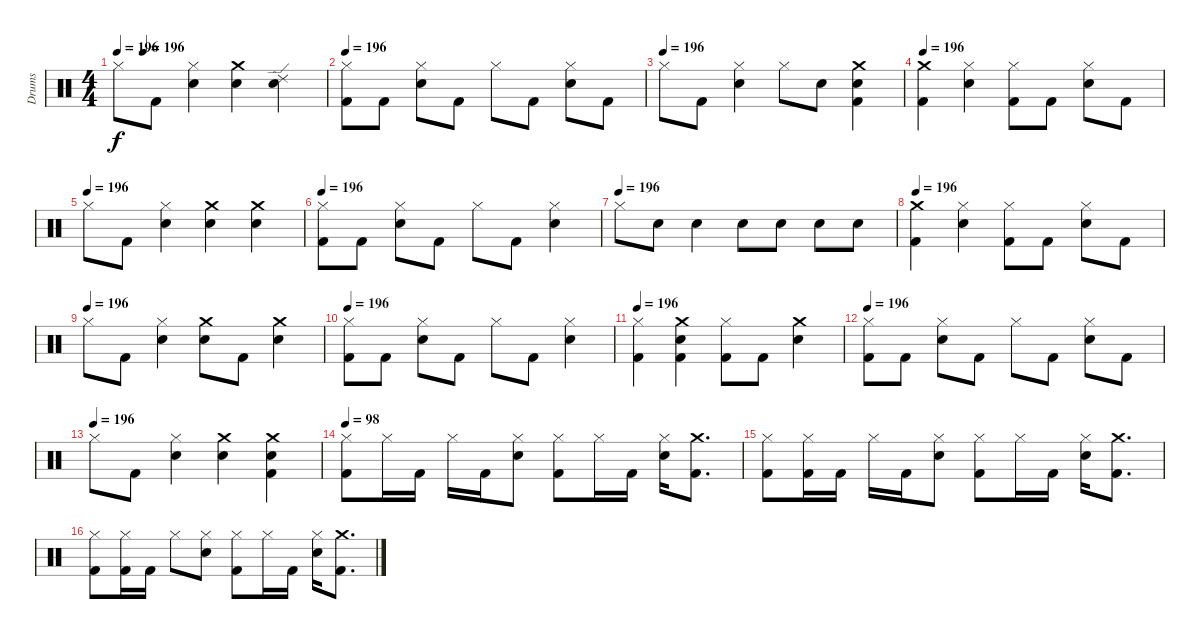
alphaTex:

\track ("Drums" "Drums") {instrument percussion}
\staff {score}
\articulation defaults
\ts (4 4)
\tempo 196
\tempo (196 0.125)
\clef neutral
\ks c "Hi-Hat (closed)".8{dy f} "Kick (hit) 2".8
("Snare (hit) 2" "Hi-Hat (closed)").4 ("Crash medium (hit)" "Snare (hit) 2").4 ("Ride (edge) 2" "Snare (hit) 2").4 |
\tempo 196
("Kick (hit) 2" "Hi-Hat (closed)").8 "Kick (hit) 2".8 ("Snare (hit) 2" "Hi-Hat (closed)").8 "Kick (hit) 2".8 "Hi-Hat (closed)".8 "Kick (hit) 2".8 ("Snare (hit) 2" "Hi-Hat (closed)").8 "Kick (hit) 2".8 |
\tempo (196)
"Hi-Hat (closed)".8 "Kick (hit) 2".8 ("Snare (hit) 2" "Hi-Hat (closed)").4 "Hi-Hat (closed)".8 "Snare (hit) 2".8 ("Kick (hit) 2" "Crash medium (hit)" "Snare (hit) 2").4 |
\tempo 196
("Kick (hit) 2" "Crash medium (hit)").4 ("Hi-Hat (closed)" "Snare (hit) 2").4 ("Kick (hit) 2" "Hi-Hat (closed)").8 "Kick (hit) 2".8 ("Snare (hit) 2" "Hi-Hat (closed)").8 "Kick (hit) 2".8 |
\tempo (196)
"Hi-Hat (closed)".8 "Kick (hit) 2".8 ("Snare (hit) 2" "Hi-Hat (closed)").4 ("Crash medium (hit)" "Snare (hit) 2").4 ("Crash medium (hit)" "Snare (hit) 2").4 |
\tempo 196
("Kick (hit) 2" "Hi-Hat (closed)").8 "Kick (hit) 2".8 ("Snare (hit) 2" "Hi-Hat (closed)").8 "Kick (hit) 2".8 "Hi-Hat (closed)".8 "Kick (hit) 2".8 ("Snare (hit) 2" "Hi-Hat (closed)").4 |
\tempo (196)
"Hi-Hat (closed)".8 "Snare (hit) 2".8 "Snare (hit) 2".4 "Snare (hit) 2".8 "Snare (hit) 2".8 "Snare (hit) 2".8 "Snare (hit) 2".8 |
\tempo 196
("Kick (hit) 2" "Crash medium (hit)").4 ("Snare (hit) 2" "Hi-Hat (closed)").4 ("Kick (hit) 2" "Hi-Hat (closed)").8 "Kick (hit) 2".8 ("Snare (hit) 2" "Hi-Hat (closed)").8 "Kick (hit) 2".8 |
\tempo (196)
"Hi-Hat (closed)".8 "Kick (hit) 2".8 ("Snare (hit) 2" "Hi-Hat (closed)").4 ("Crash medium (hit)" "Snare (hit) 2").8 "Kick (hit) 2".8 ("Crash medium (hit)" "Snare (hit) 2").4 |
\tempo 196
("Hi-Hat (closed)" "Kick (hit) 2").8 "Kick (hit) 2".8 ("Snare (hit) 2" "Hi-Hat (closed)").8 "Kick (hit) 2".8 "Hi-Hat (closed)".8 "Kick (hit) 2".8 ("Snare (hit) 2" "Hi-Hat (closed)").4 |
\tempo 196
("Kick (hit) 2" "Hi-Hat (closed)").4 ("Crash medium (hit)" "Kick (hit) 2" "Snare (hit) 2").4 ("Kick (hit) 2" "Hi-Hat (closed)").8 "Kick (hit) 2".8 ("Snare (hit) 2" "Crash medium (hit)").4 |
\tempo 196
("Hi-Hat (closed)" "Kick (hit) 2").8 "Kick (hit) 2".8 ("Snare (hit) 2" "Hi-Hat (closed)").8 "Kick (hit) 2".8 "Hi-Hat (closed)".8 "Kick (hit) 2".8 ("Snare (hit) 2" "Hi-Hat (closed)").8 "Kick (hit) 2".8 |
\tempo (196)
"Hi-Hat (closed)".8 "Kick (hit) 2".8 ("Snare (hit) 2" "Hi-Hat (closed)").4 ("Crash medium (hit)" "Snare (hit) 2").4 ("Crash medium (hit)" "Kick (hit) 2" "Snare (hit) 2").4 |
\tempo 98
("Kick (hit) 2" "Hi-Hat (closed)").8 "Hi-Hat (closed)".16 "Kick (hit) 2".16 "Hi-Hat (closed)".16 "Kick (hit) 2".16 ("Snare (hit) 2" "Hi-Hat (closed)").8 ("Kick (hit) 2" "Hi-Hat (closed)").8 "Hi-Hat (closed)".16 "Kick (hit) 2".16 ("Snare (hit) 2" "Hi-Hat (closed)").16 ("Kick (hit) 2" "Crash medium (hit)").8{d} |
("Kick (hit) 2" "Hi-Hat (closed)").8 ("Kick (hit) 2" "Hi-Hat (closed)").16 "Kick (hit) 2".16 "Hi-Hat (closed)".16 "Kick (hit) 2".16 ("Snare (hit) 2" "Hi-Hat (closed)").8 ("Kick (hit) 2" "Hi-Hat (closed)").8 "Hi-Hat (closed)".16 "Kick (hit) 2".16 ("Snare (hit) 2" "Hi-Hat (closed)").16 ("Kick (hit) 2" "Crash medium (hit)").8{d} |
("Kick (hit) 2" "Hi-Hat (closed)").8 ("Kick (hit) 2" "Hi-Hat (closed)").16 "Kick (hit) 2".16 "Hi-Hat (closed)".8 ("Snare (hit) 2" "Hi-Hat (closed)").8 ("Kick (hit) 2" "Hi-Hat (closed)").8 "Hi-Hat (closed)".16 "Kick (hit) 2".16 ("Snare (hit) 2" "Hi-Hat (closed)").16 ("Kick (hit) 2" "Crash medium (hit)").8{d}
